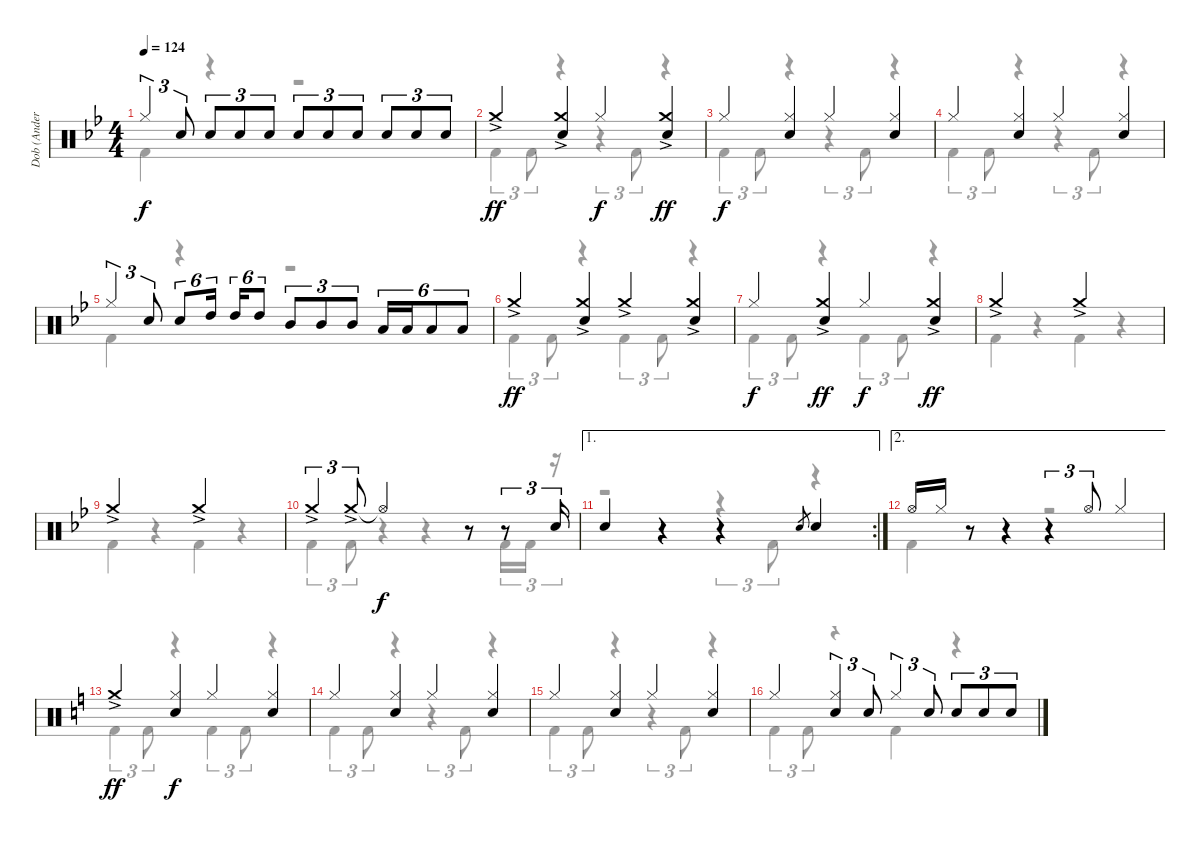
\track ("Dob (Anders Johansson)" "Dob (Ander") {instrument percussion}
\staff {score}
\articulation defaults
\voice
\ts (4 4)
\tempo 124
\clef neutral
\ks bb "Hi-Hat (closed)".4{tu (3 2) dy f} "Electric Snare (hit)".8{tu (3 2)} "Electric Snare (hit)".8{tu (3 2)} "Electric Snare (hit)".8{tu (3 2)} "Electric Snare (hit)".8{tu (3 2)} "Electric Snare (hit)".8{tu (3 2)} "Electric Snare (hit)".8{tu (3 2)} "Electric Snare (hit)".8{tu (3 2)} "Electric Snare (hit)".8{tu (3 2)} "Electric Snare (hit)".8{tu (3 2)} "Electric Snare (hit)".8{tu (3 2)}
|
"Crash medium (hit)"{ac}.4{dy ff} ("Crash medium (hit)"{ac} "Electric Snare (hit)").4 "Hi-Hat (closed)".4{dy f} ("Crash medium (hit)"{ac} "Electric Snare (hit)").4{dy ff} |
"Hi-Hat (closed)".4{dy f} ("Hi-Hat (closed)" "Electric Snare (hit)").4 "Hi-Hat (closed)".4 ("Hi-Hat (closed)" "Electric Snare (hit)").4 |
"Hi-Hat (closed)".4 ("Hi-Hat (closed)" "Electric Snare (hit)").4 "Hi-Hat (closed)".4 ("Hi-Hat (closed)" "Electric Snare (hit)").4 |
"Hi-Hat (closed)".4{tu (3 2)} "Electric Snare (hit)".8{tu (3 2)} "Electric Snare (hit)".8{tu (6 4)} "High Tom (hit)".16{tu (6 4)} "High Tom (hit)".16{tu (6 4)} "High Tom (hit)".8{tu (6 4)} "Mid Tom (hit)".8{tu (3 2)} "Mid Tom (hit)".8{tu (3 2)} "Mid Tom (hit)".8{tu (3 2)} "Low Tom (hit)".16{tu (6 4)} "Low Tom (hit)".16{tu (6 4)} "Low Tom (hit)".8{tu (6 4)} "Low Tom (hit)".8{tu (6 4)} |
"Crash medium (hit)"{ac}.4{dy ff} ("Crash medium (hit)"{ac} "Electric Snare (hit)").4 "Crash medium (hit)"{ac}.4 ("Crash medium (hit)"{ac} "Electric Snare (hit)").4 |
"Hi-Hat (closed)".4{dy f} ("Crash medium (hit)"{ac} "Electric Snare (hit)").4{dy ff} "Hi-Hat (closed)".4{dy f} ("Crash medium (hit)"{ac} "Electric Snare (hit)").4{dy ff} |
"Crash medium (hit)"{ac}.2 "Crash medium (hit)"{ac}.2 |
"Crash medium (hit)"{ac}.2 "Crash medium (hit)"{ac}.2 |
"Crash medium (hit)"{ac}.4{tu (3 2)} "Crash medium (hit)"{ac}.8{tu (3 2)} "Hi-Hat (open)"{t}.2{dy f} r.8 r.8{tu (3 2)} "Electric Snare (hit)".16{tu (3 2)} |
\ae 1
\rc 2 "Electric Snare (hit)".4
r.4 r.4 "Electric Snare (hit)"{h}.8{gr} "Electric Snare (hit)".4 |
\ae 2 "Hi-Hat (open)".16 "Hi-Hat (closed)".16
r.8 r.4 r.4{tu (3 2)} "Hi-Hat (open)".8{tu (3 2)} "Hi-Hat (closed)".4 |
\ks c "Crash medium (hit)"{ac}.4{dy ff}
("Hi-Hat (closed)" "Electric Snare (hit)").4{dy f} "Hi-Hat (closed)".4 ("Hi-Hat (closed)" "Electric Snare (hit)").4 |
"Hi-Hat (closed)".4 ("Hi-Hat (closed)" "Electric Snare (hit)").4 "Hi-Hat (closed)".4 ("Hi-Hat (closed)" "Electric Snare (hit)").4 |
"Hi-Hat (closed)".4 ("Hi-Hat (closed)" "Electric Snare (hit)").4 "Hi-Hat (closed)".4 ("Hi-Hat (closed)" "Electric Snare (hit)").4 |
"Hi-Hat (closed)".4 ("Hi-Hat (closed)" "Electric Snare (hit)").4{tu (3 2)} "Electric Snare (hit)".8{tu (3 2)} "Hi-Hat (closed)".4{tu (3 2)} "Electric Snare (hit)".8{tu (3 2)} "Electric Snare (hit)".8{tu (3 2)} "Electric Snare (hit)".8{tu (3 2)} "Electric Snare (hit)".8{tu (3 2)}
\voice
\clef neutral
\ottava regular
\simile none
\ks bb "Kick (hit) 2".4{dy f}
r.4 r.2 |
"Kick (hit) 2".4{tu (3 2)} "Kick (hit) 2".8{tu (3 2)} r.4 r.4{tu (3 2)} "Kick (hit) 2".8{tu (3 2)} r.4 |
"Kick (hit) 2".4{tu (3 2)} "Kick (hit) 2".8{tu (3 2)} r.4 r.4{tu (3 2)} "Kick (hit) 2".8{tu (3 2)} r.4 |
"Kick (hit) 2".4{tu (3 2)} "Kick (hit) 2".8{tu (3 2)} r.4 r.4{tu (3 2)} "Kick (hit) 2".8{tu (3 2)} r.4 |
"Kick (hit) 2".4 r.4 r.2 |
"Kick (hit) 2".4{tu (3 2)} "Kick (hit) 2".8{tu (3 2)} r.4 "Kick (hit) 2".4{tu (3 2)} "Kick (hit) 2".8{tu (3 2)} r.4 |
"Kick (hit) 2".4{tu (3 2)} "Kick (hit) 2".8{tu (3 2)} r.4 "Kick (hit) 2".4{tu (3 2)} "Kick (hit) 2".8{tu (3 2)} r.4 |
"Kick (hit) 2".4 r.4 "Kick (hit) 2".4 r.4 |
"Kick (hit) 2".4 r.4 "Kick (hit) 2".4 r.4 |
"Kick (hit) 2".4{tu (3 2)} "Kick (hit) 2".8{tu (3 2)} r.4 r.4 r.8 "Kick (hit) 2".16{tu (3 2)} "Kick (hit) 2".16{tu (3 2)} r.16{tu (3 2)} |
r.2 r.4{tu (3 2)} "Kick (hit) 2".8{tu (3 2)} r.4 |
"Kick (hit) 2".4 r.4 r.2 |
\ks c "Kick (hit) 2".4{tu (3 2)} "Kick (hit) 2".8{tu (3 2)}
r.4 "Kick (hit) 2".4{tu (3 2)} "Kick (hit) 2".8{tu (3 2)} r.4 |
"Kick (hit) 2".4{tu (3 2)} "Kick (hit) 2".8{tu (3 2)} r.4 r.4{tu (3 2)} "Kick (hit) 2".8{tu (3 2)} r.4 |
"Kick (hit) 2".4{tu (3 2)} "Kick (hit) 2".8{tu (3 2)} r.4 r.4{tu (3 2)} "Kick (hit) 2".8{tu (3 2)} r.4 |
"Kick (hit) 2".4{tu (3 2)} "Kick (hit) 2".8{tu (3 2)} r.4 "Kick (hit) 2".4 r.4
